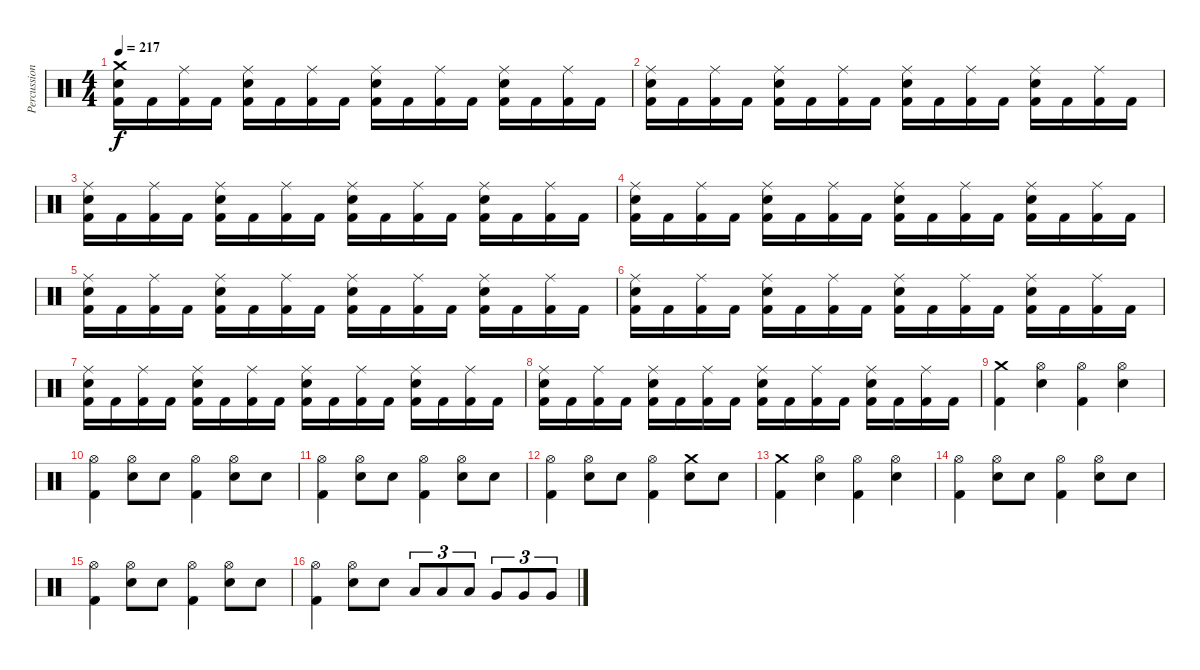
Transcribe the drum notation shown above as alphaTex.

\track ("Percussions" "Percussion") {instrument percussion}
\staff {score}
\articulation defaults
\ts (4 4)
\tempo 217
\clef neutral
\ks c
("Crash medium (hit)" "Electric Snare (hit)" "Kick (hit) 2").16{dy f} "Kick (hit) 2".16 ("Ride (middle)" "Kick (hit) 2").16 "Kick (hit) 2".16 ("Ride (middle)" "Electric Snare (hit)" "Kick (hit) 2").16 "Kick (hit) 2".16 ("Ride (middle)" "Kick (hit) 2").16 "Kick (hit) 2".16 ("Ride (middle)" "Electric Snare (hit)" "Kick (hit) 2").16 "Kick (hit) 2".16 ("Ride (middle)" "Kick (hit) 2").16 "Kick (hit) 2".16 ("Ride (middle)" "Electric Snare (hit)" "Kick (hit) 2").16 "Kick (hit) 2".16 ("Ride (middle)" "Kick (hit) 2").16 "Kick (hit) 2".16 |
("Ride (middle)" "Electric Snare (hit)" "Kick (hit) 2").16 "Kick (hit) 2".16 ("Ride (middle)" "Kick (hit) 2").16 "Kick (hit) 2".16 ("Ride (middle)" "Electric Snare (hit)" "Kick (hit) 2").16 "Kick (hit) 2".16 ("Ride (middle)" "Kick (hit) 2").16 "Kick (hit) 2".16 ("Ride (middle)" "Electric Snare (hit)" "Kick (hit) 2").16 "Kick (hit) 2".16 ("Ride (middle)" "Kick (hit) 2").16 "Kick (hit) 2".16 ("Ride (middle)" "Electric Snare (hit)" "Kick (hit) 2").16 "Kick (hit) 2".16 ("Ride (middle)" "Kick (hit) 2").16 "Kick (hit) 2".16 |
("Ride (middle)" "Electric Snare (hit)" "Kick (hit) 2").16 "Kick (hit) 2".16 ("Ride (middle)" "Kick (hit) 2").16 "Kick (hit) 2".16 ("Ride (middle)" "Electric Snare (hit)" "Kick (hit) 2").16 "Kick (hit) 2".16 ("Ride (middle)" "Kick (hit) 2").16 "Kick (hit) 2".16 ("Ride (middle)" "Electric Snare (hit)" "Kick (hit) 2").16 "Kick (hit) 2".16 ("Ride (middle)" "Kick (hit) 2").16 "Kick (hit) 2".16 ("Ride (middle)" "Electric Snare (hit)" "Kick (hit) 2").16 "Kick (hit) 2".16 ("Ride (middle)" "Kick (hit) 2").16 "Kick (hit) 2".16 |
("Ride (middle)" "Electric Snare (hit)" "Kick (hit) 2").16 "Kick (hit) 2".16 ("Ride (middle)" "Kick (hit) 2").16 "Kick (hit) 2".16 ("Ride (middle)" "Electric Snare (hit)" "Kick (hit) 2").16 "Kick (hit) 2".16 ("Ride (middle)" "Kick (hit) 2").16 "Kick (hit) 2".16 ("Ride (middle)" "Electric Snare (hit)" "Kick (hit) 2").16 "Kick (hit) 2".16 ("Ride (middle)" "Kick (hit) 2").16 "Kick (hit) 2".16 ("Ride (middle)" "Electric Snare (hit)" "Kick (hit) 2").16 "Kick (hit) 2".16 ("Ride (middle)" "Kick (hit) 2").16 "Kick (hit) 2".16 |
("Ride (middle)" "Electric Snare (hit)" "Kick (hit) 2").16 "Kick (hit) 2".16 ("Ride (middle)" "Kick (hit) 2").16 "Kick (hit) 2".16 ("Ride (middle)" "Electric Snare (hit)" "Kick (hit) 2").16 "Kick (hit) 2".16 ("Ride (middle)" "Kick (hit) 2").16 "Kick (hit) 2".16 ("Ride (middle)" "Electric Snare (hit)" "Kick (hit) 2").16 "Kick (hit) 2".16 ("Ride (middle)" "Kick (hit) 2").16 "Kick (hit) 2".16 ("Ride (middle)" "Electric Snare (hit)" "Kick (hit) 2").16 "Kick (hit) 2".16 ("Ride (middle)" "Kick (hit) 2").16 "Kick (hit) 2".16 |
("Ride (middle)" "Electric Snare (hit)" "Kick (hit) 2").16 "Kick (hit) 2".16 ("Ride (middle)" "Kick (hit) 2").16 "Kick (hit) 2".16 ("Ride (middle)" "Electric Snare (hit)" "Kick (hit) 2").16 "Kick (hit) 2".16 ("Ride (middle)" "Kick (hit) 2").16 "Kick (hit) 2".16 ("Ride (middle)" "Electric Snare (hit)" "Kick (hit) 2").16 "Kick (hit) 2".16 ("Ride (middle)" "Kick (hit) 2").16 "Kick (hit) 2".16 ("Ride (middle)" "Electric Snare (hit)" "Kick (hit) 2").16 "Kick (hit) 2".16 ("Ride (middle)" "Kick (hit) 2").16 "Kick (hit) 2".16 |
("Ride (middle)" "Electric Snare (hit)" "Kick (hit) 2").16 "Kick (hit) 2".16 ("Ride (middle)" "Kick (hit) 2").16 "Kick (hit) 2".16 ("Ride (middle)" "Electric Snare (hit)" "Kick (hit) 2").16 "Kick (hit) 2".16 ("Ride (middle)" "Kick (hit) 2").16 "Kick (hit) 2".16 ("Ride (middle)" "Electric Snare (hit)" "Kick (hit) 2").16 "Kick (hit) 2".16 ("Ride (middle)" "Kick (hit) 2").16 "Kick (hit) 2".16 ("Ride (middle)" "Electric Snare (hit)" "Kick (hit) 2").16 "Kick (hit) 2".16 ("Ride (middle)" "Kick (hit) 2").16 "Kick (hit) 2".16 |
("Ride (middle)" "Electric Snare (hit)" "Kick (hit) 2").16 "Kick (hit) 2".16 ("Ride (middle)" "Kick (hit) 2").16 "Kick (hit) 2".16 ("Ride (middle)" "Electric Snare (hit)" "Kick (hit) 2").16 "Kick (hit) 2".16 ("Ride (middle)" "Kick (hit) 2").16 "Kick (hit) 2".16 ("Ride (middle)" "Electric Snare (hit)" "Kick (hit) 2").16 "Kick (hit) 2".16 ("Ride (middle)" "Kick (hit) 2").16 "Kick (hit) 2".16 ("Ride (middle)" "Electric Snare (hit)" "Kick (hit) 2").16 "Kick (hit) 2".16 ("Ride (middle)" "Kick (hit) 2").16 "Kick (hit) 2".16 |
("Crash medium (hit)" "Kick (hit) 2").4 ("Hi-Hat (open)" "Electric Snare (hit)").4 ("Hi-Hat (open)" "Kick (hit) 2").4 ("Hi-Hat (open)" "Electric Snare (hit)").4 |
("Hi-Hat (open)" "Kick (hit) 2").4 ("Hi-Hat (open)" "Electric Snare (hit)").8 "Electric Snare (hit)".8 ("Hi-Hat (open)" "Kick (hit) 2").4 ("Hi-Hat (open)" "Electric Snare (hit)").8 "Electric Snare (hit)".8 |
("Hi-Hat (open)" "Kick (hit) 2").4 ("Hi-Hat (open)" "Electric Snare (hit)").8 "Electric Snare (hit)".8 ("Hi-Hat (open)" "Kick (hit) 2").4 ("Hi-Hat (open)" "Electric Snare (hit)").8 "Electric Snare (hit)".8 |
("Hi-Hat (open)" "Kick (hit) 2").4 ("Hi-Hat (open)" "Electric Snare (hit)").8 "Electric Snare (hit)".8 ("Hi-Hat (open)" "Kick (hit) 2").4 ("Crash medium (hit)" "Electric Snare (hit)").8 "Electric Snare (hit)".8 |
("Crash medium (hit)" "Kick (hit) 2").4 ("Hi-Hat (open)" "Electric Snare (hit)").4 ("Hi-Hat (open)" "Kick (hit) 2").4 ("Hi-Hat (open)" "Electric Snare (hit)").4 |
("Hi-Hat (open)" "Kick (hit) 2").4 ("Hi-Hat (open)" "Electric Snare (hit)").8 "Electric Snare (hit)".8 ("Hi-Hat (open)" "Kick (hit) 2").4 ("Hi-Hat (open)" "Electric Snare (hit)").8 "Electric Snare (hit)".8 |
("Hi-Hat (open)" "Kick (hit) 2").4 ("Hi-Hat (open)" "Electric Snare (hit)").8 "Electric Snare (hit)".8 ("Hi-Hat (open)" "Kick (hit) 2").4 ("Hi-Hat (open)" "Electric Snare (hit)").8 "Electric Snare (hit)".8 |
("Hi-Hat (open)" "Kick (hit) 2").4 ("Hi-Hat (open)" "Electric Snare (hit)").8 "Electric Snare (hit)".8 "Low Tom (hit)".8{tu (3 2)} "Low Tom (hit)".8{tu (3 2)} "Low Tom (hit)".8{tu (3 2)} "Very Low Tom (hit)".8{tu (3 2)} "Very Low Tom (hit)".8{tu (3 2)} "Very Low Tom (hit)".8{tu (3 2)}
